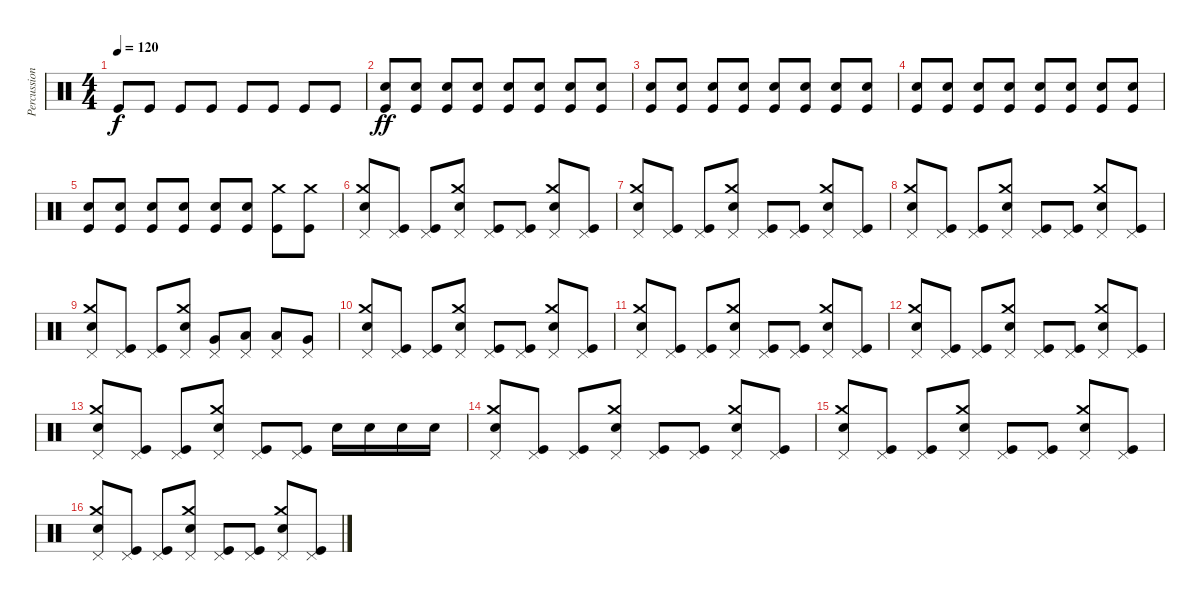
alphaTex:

\track ("Percussions" "Percussion") {instrument percussion}
\staff {score}
\articulation defaults
\ts (4 4)
\tempo 120
\clef neutral
\ks c "Kick (hit)".8{dy f} "Kick (hit)".8 "Kick (hit)".8 "Kick (hit)".8 "Kick (hit)".8 "Kick (hit)".8 "Kick (hit)".8 "Kick (hit)".8
|
("Electric Snare (hit)" "Kick (hit)").8{dy ff} ("Electric Snare (hit)" "Kick (hit)").8 ("Electric Snare (hit)" "Kick (hit)").8 ("Electric Snare (hit)" "Kick (hit)").8 ("Electric Snare (hit)" "Kick (hit)").8 ("Electric Snare (hit)" "Kick (hit)").8 ("Electric Snare (hit)" "Kick (hit)").8 ("Electric Snare (hit)" "Kick (hit)").8 |
("Electric Snare (hit)" "Kick (hit)").8 ("Electric Snare (hit)" "Kick (hit)").8 ("Electric Snare (hit)" "Kick (hit)").8 ("Electric Snare (hit)" "Kick (hit)").8 ("Electric Snare (hit)" "Kick (hit)").8 ("Electric Snare (hit)" "Kick (hit)").8 ("Electric Snare (hit)" "Kick (hit)").8 ("Electric Snare (hit)" "Kick (hit)").8 |
("Electric Snare (hit)" "Kick (hit)").8 ("Electric Snare (hit)" "Kick (hit)").8 ("Electric Snare (hit)" "Kick (hit)").8 ("Electric Snare (hit)" "Kick (hit)").8 ("Electric Snare (hit)" "Kick (hit)").8 ("Electric Snare (hit)" "Kick (hit)").8 ("Electric Snare (hit)" "Kick (hit)").8 ("Electric Snare (hit)" "Kick (hit)").8 |
("Electric Snare (hit)" "Kick (hit)").8 ("Electric Snare (hit)" "Kick (hit)").8 ("Electric Snare (hit)" "Kick (hit)").8 ("Electric Snare (hit)" "Kick (hit)").8 ("Electric Snare (hit)" "Kick (hit)").8 ("Electric Snare (hit)" "Kick (hit)").8 ("Crash medium (hit)" "Kick (hit)").8 ("Crash medium (hit)" "Kick (hit)").8 |
("Crash medium (hit)" "Electric Snare (hit)" "Pedal Hi-Hat (hit)").8 ("Kick (hit)" "Pedal Hi-Hat (hit)").8 ("Kick (hit)" "Pedal Hi-Hat (hit)").8 ("Crash medium (hit)" "Electric Snare (hit)" "Pedal Hi-Hat (hit)").8 ("Kick (hit)" "Pedal Hi-Hat (hit)").8 ("Kick (hit)" "Pedal Hi-Hat (hit)").8 ("Crash medium (hit)" "Electric Snare (hit)" "Pedal Hi-Hat (hit)").8 ("Kick (hit)" "Pedal Hi-Hat (hit)").8 |
("Crash medium (hit)" "Electric Snare (hit)" "Pedal Hi-Hat (hit)").8 ("Kick (hit)" "Pedal Hi-Hat (hit)").8 ("Kick (hit)" "Pedal Hi-Hat (hit)").8 ("Crash medium (hit)" "Electric Snare (hit)" "Pedal Hi-Hat (hit)").8 ("Kick (hit)" "Pedal Hi-Hat (hit)").8 ("Kick (hit)" "Pedal Hi-Hat (hit)").8 ("Crash medium (hit)" "Electric Snare (hit)" "Pedal Hi-Hat (hit)").8 ("Kick (hit)" "Pedal Hi-Hat (hit)").8 |
("Crash medium (hit)" "Electric Snare (hit)" "Pedal Hi-Hat (hit)").8 ("Kick (hit)" "Pedal Hi-Hat (hit)").8 ("Kick (hit)" "Pedal Hi-Hat (hit)").8 ("Crash medium (hit)" "Electric Snare (hit)" "Pedal Hi-Hat (hit)").8 ("Kick (hit)" "Pedal Hi-Hat (hit)").8 ("Kick (hit)" "Pedal Hi-Hat (hit)").8 ("Crash medium (hit)" "Electric Snare (hit)" "Pedal Hi-Hat (hit)").8 ("Kick (hit)" "Pedal Hi-Hat (hit)").8 |
("Crash medium (hit)" "Electric Snare (hit)" "Pedal Hi-Hat (hit)").8 ("Kick (hit)" "Pedal Hi-Hat (hit)").8 ("Kick (hit)" "Pedal Hi-Hat (hit)").8 ("Crash medium (hit)" "Electric Snare (hit)" "Pedal Hi-Hat (hit)").8 ("Very Low Tom (hit)" "Pedal Hi-Hat (hit)").8 ("Low Floor Tom (hit)" "Pedal Hi-Hat (hit)").8 ("Low Tom (hit)" "Pedal Hi-Hat (hit)").8 ("Very Low Tom (hit)" "Pedal Hi-Hat (hit)").8 |
("Crash medium (hit)" "Electric Snare (hit)" "Pedal Hi-Hat (hit)").8 ("Kick (hit)" "Pedal Hi-Hat (hit)").8 ("Kick (hit)" "Pedal Hi-Hat (hit)").8 ("Crash medium (hit)" "Electric Snare (hit)" "Pedal Hi-Hat (hit)").8 ("Kick (hit)" "Pedal Hi-Hat (hit)").8 ("Kick (hit)" "Pedal Hi-Hat (hit)").8 ("Crash medium (hit)" "Electric Snare (hit)" "Pedal Hi-Hat (hit)").8 ("Kick (hit)" "Pedal Hi-Hat (hit)").8 |
("Crash medium (hit)" "Electric Snare (hit)" "Pedal Hi-Hat (hit)").8 ("Kick (hit)" "Pedal Hi-Hat (hit)").8 ("Kick (hit)" "Pedal Hi-Hat (hit)").8 ("Crash medium (hit)" "Electric Snare (hit)" "Pedal Hi-Hat (hit)").8 ("Kick (hit)" "Pedal Hi-Hat (hit)").8 ("Kick (hit)" "Pedal Hi-Hat (hit)").8 ("Crash medium (hit)" "Electric Snare (hit)" "Pedal Hi-Hat (hit)").8 ("Kick (hit)" "Pedal Hi-Hat (hit)").8 |
("Crash medium (hit)" "Electric Snare (hit)" "Pedal Hi-Hat (hit)").8 ("Kick (hit)" "Pedal Hi-Hat (hit)").8 ("Kick (hit)" "Pedal Hi-Hat (hit)").8 ("Crash medium (hit)" "Electric Snare (hit)" "Pedal Hi-Hat (hit)").8 ("Kick (hit)" "Pedal Hi-Hat (hit)").8 ("Kick (hit)" "Pedal Hi-Hat (hit)").8 ("Crash medium (hit)" "Electric Snare (hit)" "Pedal Hi-Hat (hit)").8 ("Kick (hit)" "Pedal Hi-Hat (hit)").8 |
("Crash medium (hit)" "Electric Snare (hit)" "Pedal Hi-Hat (hit)").8 ("Kick (hit)" "Pedal Hi-Hat (hit)").8 ("Kick (hit)" "Pedal Hi-Hat (hit)").8 ("Crash medium (hit)" "Electric Snare (hit)" "Pedal Hi-Hat (hit)").8 ("Kick (hit)" "Pedal Hi-Hat (hit)").8 ("Kick (hit)" "Pedal Hi-Hat (hit)").8 "Electric Snare (hit)".16 "Electric Snare (hit)".16 "Electric Snare (hit)".16 "Electric Snare (hit)".16 |
("Crash medium (hit)" "Electric Snare (hit)" "Pedal Hi-Hat (hit)").8 ("Kick (hit)" "Pedal Hi-Hat (hit)").8 ("Kick (hit)" "Pedal Hi-Hat (hit)").8 ("Crash medium (hit)" "Electric Snare (hit)" "Pedal Hi-Hat (hit)").8 ("Kick (hit)" "Pedal Hi-Hat (hit)").8 ("Kick (hit)" "Pedal Hi-Hat (hit)").8 ("Crash medium (hit)" "Electric Snare (hit)" "Pedal Hi-Hat (hit)").8 ("Kick (hit)" "Pedal Hi-Hat (hit)").8 |
("Crash medium (hit)" "Electric Snare (hit)" "Pedal Hi-Hat (hit)").8 ("Kick (hit)" "Pedal Hi-Hat (hit)").8 ("Kick (hit)" "Pedal Hi-Hat (hit)").8 ("Crash medium (hit)" "Electric Snare (hit)" "Pedal Hi-Hat (hit)").8 ("Kick (hit)" "Pedal Hi-Hat (hit)").8 ("Kick (hit)" "Pedal Hi-Hat (hit)").8 ("Crash medium (hit)" "Electric Snare (hit)" "Pedal Hi-Hat (hit)").8 ("Kick (hit)" "Pedal Hi-Hat (hit)").8 |
("Crash medium (hit)" "Electric Snare (hit)" "Pedal Hi-Hat (hit)").8 ("Kick (hit)" "Pedal Hi-Hat (hit)").8 ("Kick (hit)" "Pedal Hi-Hat (hit)").8 ("Crash medium (hit)" "Electric Snare (hit)" "Pedal Hi-Hat (hit)").8 ("Kick (hit)" "Pedal Hi-Hat (hit)").8 ("Kick (hit)" "Pedal Hi-Hat (hit)").8 ("Crash medium (hit)" "Electric Snare (hit)" "Pedal Hi-Hat (hit)").8 ("Kick (hit)" "Pedal Hi-Hat (hit)").8
